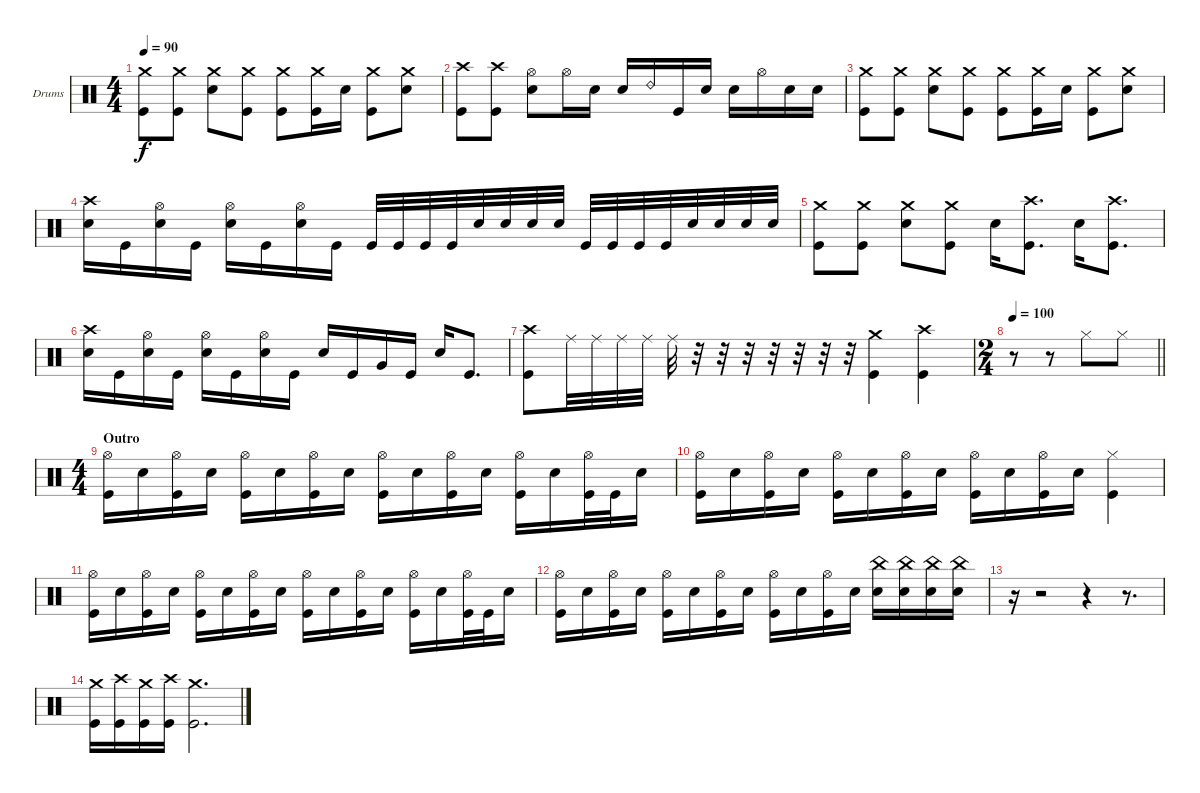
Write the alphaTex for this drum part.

\bracketExtendMode groupsimilarinstruments
\firstSystemTrackNameOrientation horizontal
\otherSystemsTrackNameOrientation horizontal
\track ("Drumkit" "Drums") {instrument percussion}
\staff {score}
\articulation defaults
\ts (4 4)
\tempo 90
\clef neutral
\ks c
("Crash medium (hit)" "Kick (hit)").8{dy f} ("Crash medium (hit)" "Kick (hit)").8 ("Crash medium (hit)" "Snare (hit) 2").8 ("Crash medium (hit)" "Kick (hit)").8 ("Crash medium (hit)" "Kick (hit)").8 ("Crash medium (hit)" "Kick (hit)").16 "Snare (hit) 2".16 ("Crash medium (hit)" "Kick (hit)").8 ("Crash medium (hit)" "Snare (hit) 2").8 |
("Crash high (hit)" "Kick (hit)").8 ("Crash high (hit)" "Kick (hit)").8 ("Hi-Hat (open)" "Snare (hit) 2").8 "Hi-Hat (open)".16 "Snare (hit) 2".16 "Snare (hit) 2".16 "Ride (bell) 2".16 "Kick (hit)".16 "Snare (hit) 2".16 "Snare (hit) 2".16 "Hi-Hat (open)".16 "Snare (hit) 2".16 "Snare (hit) 2".16 |
("Crash medium (hit)" "Kick (hit)").8 ("Crash medium (hit)" "Kick (hit)").8 ("Crash medium (hit)" "Snare (hit) 2").8 ("Crash medium (hit)" "Kick (hit)").8 ("Crash medium (hit)" "Kick (hit)").8 ("Crash medium (hit)" "Kick (hit)").16 "Snare (hit) 2".16 ("Crash medium (hit)" "Kick (hit)").8 ("Crash medium (hit)" "Snare (hit) 2").8 |
("Crash high (hit)" "Snare (hit) 2").16 "Kick (hit)".16 ("Hi-Hat (open)" "Snare (hit) 2").16 "Kick (hit)".16 ("Hi-Hat (open)" "Snare (hit) 2").16 "Kick (hit)".16 ("Hi-Hat (open)" "Snare (hit) 2").16 "Kick (hit)".16 "Kick (hit)".32 "Kick (hit)".32 "Kick (hit)".32 "Kick (hit)".32 "Snare (hit) 2".32 "Snare (hit) 2".32 "Snare (hit) 2".32 "Snare (hit) 2".32 "Kick (hit)".32 "Kick (hit)".32 "Kick (hit)".32 "Kick (hit)".32 "Snare (hit) 2".32 "Snare (hit) 2".32 "Snare (hit) 2".32 "Snare (hit) 2".32 |
("Crash medium (hit)" "Kick (hit)").8 ("Crash medium (hit)" "Kick (hit)").8 ("Crash medium (hit)" "Snare (hit) 2").8 ("Crash medium (hit)" "Kick (hit)").8 "Snare (hit) 2".16 ("Crash high (hit)" "Kick (hit)").8{d} "Snare (hit) 2".16 ("Crash high (hit)" "Kick (hit)").8{d} |
("Crash high (hit)" "Snare (hit) 2").16 "Kick (hit)".16 ("Hi-Hat (open)" "Snare (hit) 2").16 "Kick (hit)".16 ("Hi-Hat (open)" "Snare (hit) 2").16 "Kick (hit)".16 ("Hi-Hat (open)" "Snare (hit) 2").16 "Kick (hit)".16 "Snare (hit) 2".16 "Kick (hit)".16 "Very Low Tom (hit)".16 "Kick (hit)".16 "Snare (hit) 2".16 "Kick (hit)".8{d} |
("Crash high (hit)" "Kick (hit)").8 "Ride (middle)".32 "Ride (middle)".32 "Ride (middle)".32 "Ride (middle)".32 "Ride (middle)".32 r.32 r.32 r.32 r.32 r.32 r.32 r.32 ("Crash medium (hit)" "Kick (hit)").4 ("Crash high (hit)" "Kick (hit)").4 |
\ts (2 4)
\beaming (8 2 2)
\tempo 100
\barLineRight lightlight
r.8 r.8 "Hi-Hat (closed)".8 "Hi-Hat (closed)".8 |
\ts (4 4)
\beaming (8 2 2 2 2)
\section ("" "Outro")
("Hi-Hat (open)" "Kick (hit)").16 "Snare (hit) 2".16 ("Hi-Hat (open)" "Kick (hit)").16 "Snare (hit) 2".16 ("Hi-Hat (open)" "Kick (hit)").16 "Snare (hit) 2".16 ("Hi-Hat (open)" "Kick (hit)").16 "Snare (hit) 2".16 ("Hi-Hat (open)" "Kick (hit)").16 "Snare (hit) 2".16 ("Hi-Hat (open)" "Kick (hit)").16 "Snare (hit) 2".16 ("Hi-Hat (open)" "Kick (hit)").16 "Snare (hit) 2".16 ("Hi-Hat (open)" "Kick (hit)").32 "Kick (hit)".32 "Snare (hit) 2".16 |
("Hi-Hat (open)" "Kick (hit)").16 "Snare (hit) 2".16 ("Hi-Hat (open)" "Kick (hit)").16 "Snare (hit) 2".16 ("Hi-Hat (open)" "Kick (hit)").16 "Snare (hit) 2".16 ("Hi-Hat (open)" "Kick (hit)").16 "Snare (hit) 2".16 ("Hi-Hat (open)" "Kick (hit)").16 "Snare (hit) 2".16 ("Hi-Hat (open)" "Kick (hit)").16 "Snare (hit) 2".16 ("Hi-Hat (closed)" "Kick (hit)").4 |
("Hi-Hat (open)" "Kick (hit)").16 "Snare (hit) 2".16 ("Hi-Hat (open)" "Kick (hit)").16 "Snare (hit) 2".16 ("Hi-Hat (open)" "Kick (hit)").16 "Snare (hit) 2".16 ("Hi-Hat (open)" "Kick (hit)").16 "Snare (hit) 2".16 ("Hi-Hat (open)" "Kick (hit)").16 "Snare (hit) 2".16 ("Hi-Hat (open)" "Kick (hit)").16 "Snare (hit) 2".16 ("Hi-Hat (open)" "Kick (hit)").16 "Snare (hit) 2".16 ("Hi-Hat (open)" "Kick (hit)").32 "Kick (hit)".32 "Snare (hit) 2".16 |
("Hi-Hat (open)" "Kick (hit)").16 "Snare (hit) 2".16 ("Hi-Hat (open)" "Kick (hit)").16 "Snare (hit) 2".16 ("Hi-Hat (open)" "Kick (hit)").16 "Snare (hit) 2".16 ("Hi-Hat (open)" "Kick (hit)").16 "Snare (hit) 2".16 ("Hi-Hat (open)" "Kick (hit)").16 "Snare (hit) 2".16 ("Hi-Hat (open)" "Kick (hit)").16 "Snare (hit) 2".16 ("China (hit)" "Snare (hit) 2").16 ("China (hit)" "Snare (hit) 2").16 ("China (hit)" "Snare (hit) 2").16 ("China (hit)" "Snare (hit) 2").16 |
r.16 r.2 r.4 r.8{d} |
("Crash medium (hit)" "Kick (hit)").16 ("Crash high (hit)" "Kick (hit)").16 ("Crash medium (hit)" "Kick (hit)").16 ("Crash high (hit)" "Kick (hit)").16 ("Crash medium (hit)" "Kick (hit)").2{d}
